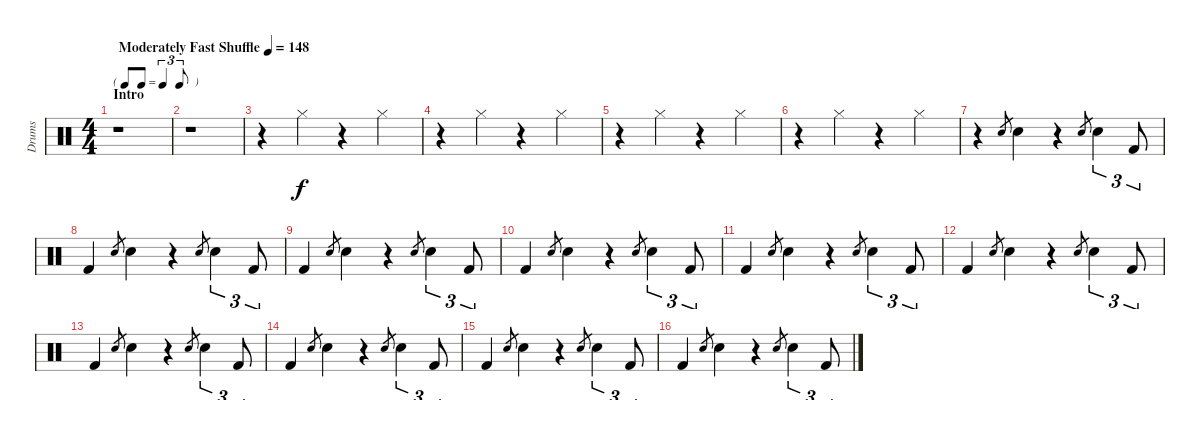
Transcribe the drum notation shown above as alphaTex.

\track ("Drums" "Drums") {instrument percussion}
\staff {score}
\articulation defaults
\ts (4 4)
\tf triplet8th
\section ("" "Intro")
\tempo (148 "Moderately Fast Shuffle")
\clef neutral
\ks c
r.1{dy f} |
r.1 |
r.4 "Hi-Hat (closed)".4 r.4 "Hi-Hat (closed)".4 |
r.4 "Hi-Hat (closed)".4 r.4 "Hi-Hat (closed)".4 |
r.4 "Hi-Hat (closed)".4 r.4 "Hi-Hat (closed)".4 |
r.4 "Hi-Hat (closed)".4 r.4 "Hi-Hat (closed)".4 |
r.4 "Snare (hit) 2".8{gr} "Snare (hit) 2".4 r.4 "Snare (hit) 2".8{gr} "Snare (hit) 2".4{tu (3 2)} "Kick (hit) 2".8{tu (3 2)} |
"Kick (hit) 2".4 "Snare (hit) 2".8{gr} "Snare (hit) 2".4 r.4 "Snare (hit) 2".8{gr} "Snare (hit) 2".4{tu (3 2)} "Kick (hit) 2".8{tu (3 2)} |
"Kick (hit) 2".4 "Snare (hit) 2".8{gr} "Snare (hit) 2".4 r.4 "Snare (hit) 2".8{gr} "Snare (hit) 2".4{tu (3 2)} "Kick (hit) 2".8{tu (3 2)} |
"Kick (hit) 2".4 "Snare (hit) 2".8{gr} "Snare (hit) 2".4 r.4 "Snare (hit) 2".8{gr} "Snare (hit) 2".4{tu (3 2)} "Kick (hit) 2".8{tu (3 2)} |
"Kick (hit) 2".4 "Snare (hit) 2".8{gr} "Snare (hit) 2".4 r.4 "Snare (hit) 2".8{gr} "Snare (hit) 2".4{tu (3 2)} "Kick (hit) 2".8{tu (3 2)} |
"Kick (hit) 2".4 "Snare (hit) 2".8{gr} "Snare (hit) 2".4 r.4 "Snare (hit) 2".8{gr} "Snare (hit) 2".4{tu (3 2)} "Kick (hit) 2".8{tu (3 2)} |
"Kick (hit) 2".4 "Snare (hit) 2".8{gr} "Snare (hit) 2".4 r.4 "Snare (hit) 2".8{gr} "Snare (hit) 2".4{tu (3 2)} "Kick (hit) 2".8{tu (3 2)} |
"Kick (hit) 2".4 "Snare (hit) 2".8{gr} "Snare (hit) 2".4 r.4 "Snare (hit) 2".8{gr} "Snare (hit) 2".4{tu (3 2)} "Kick (hit) 2".8{tu (3 2)} |
"Kick (hit) 2".4 "Snare (hit) 2".8{gr} "Snare (hit) 2".4 r.4 "Snare (hit) 2".8{gr} "Snare (hit) 2".4{tu (3 2)} "Kick (hit) 2".8{tu (3 2)} |
"Kick (hit) 2".4 "Snare (hit) 2".8{gr} "Snare (hit) 2".4 r.4 "Snare (hit) 2".8{gr} "Snare (hit) 2".4{tu (3 2)} "Kick (hit) 2".8{tu (3 2)}
